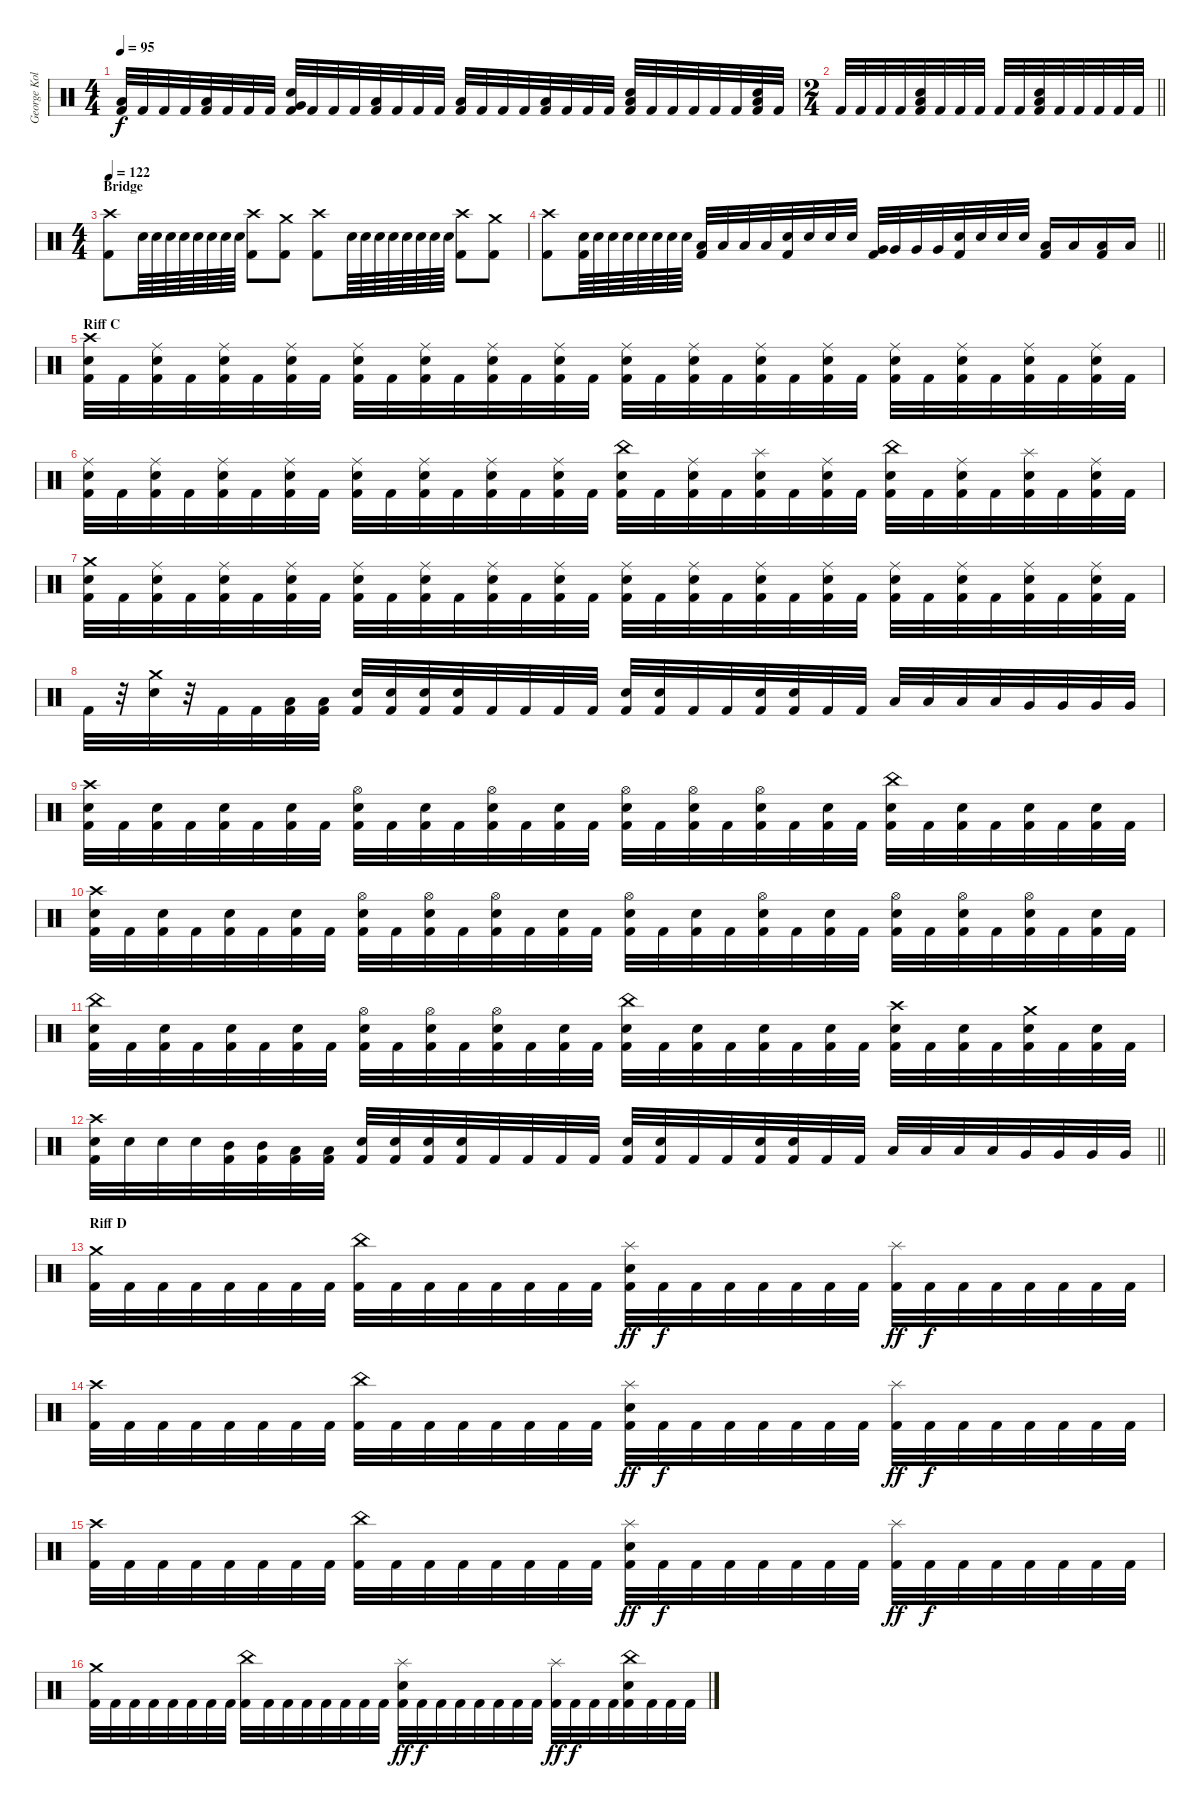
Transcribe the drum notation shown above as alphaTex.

\track ("George Kollias" "George Kol") {instrument percussion}
\staff {score}
\articulation defaults
\ts (4 4)
\tempo 95
\clef neutral
\ks c
("Low Floor Tom (hit)" "Kick (hit) 2").32{dy f} "Kick (hit) 2".32 "Kick (hit) 2".32 "Kick (hit) 2".32 ("Low Floor Tom (hit)" "Kick (hit) 2").32 "Kick (hit) 2".32 "Kick (hit) 2".32 "Kick (hit) 2".32 ("Very Low Tom (hit)" "Snare (hit) 2" "Kick (hit) 2").32 "Kick (hit) 2".32 "Kick (hit) 2".32 "Kick (hit) 2".32 ("Low Floor Tom (hit)" "Kick (hit) 2").32 "Kick (hit) 2".32 "Kick (hit) 2".32 "Kick (hit) 2".32 ("Low Floor Tom (hit)" "Kick (hit) 2").32 "Kick (hit) 2".32 "Kick (hit) 2".32 "Kick (hit) 2".32 ("Low Floor Tom (hit)" "Kick (hit) 2").32 "Kick (hit) 2".32 "Kick (hit) 2".32 "Kick (hit) 2".32 ("Low Floor Tom (hit)" "Snare (hit) 2" "Kick (hit) 2").32 "Kick (hit) 2".32 "Kick (hit) 2".32 "Kick (hit) 2".32 "Kick (hit) 2".32 "Kick (hit) 2".32 ("Low Floor Tom (hit)" "Snare (hit) 2" "Kick (hit) 2").32 "Kick (hit) 2".32 |
\ts (2 4)
\barLineRight lightlight "Kick (hit) 2".32 "Kick (hit) 2".32 "Kick (hit) 2".32 "Kick (hit) 2".32
("Low Floor Tom (hit)" "Snare (hit) 2" "Kick (hit) 2").32 "Kick (hit) 2".32 "Kick (hit) 2".32 "Kick (hit) 2".32 "Kick (hit) 2".32 "Kick (hit) 2".32 ("Low Floor Tom (hit)" "Snare (hit) 2" "Kick (hit) 2").32 "Kick (hit) 2".32 "Kick (hit) 2".32 "Kick (hit) 2".32 "Kick (hit) 2".32 "Kick (hit) 2".32 |
\ts (4 4)
\section ("" "Bridge")
\tempo 122
("Crash high (hit)" "Kick (hit) 2").8 "Snare (hit) 2".64 "Snare (hit) 2".64 "Snare (hit) 2".64 "Snare (hit) 2".64 "Snare (hit) 2".64 "Snare (hit) 2".64 "Snare (hit) 2".64 "Snare (hit) 2".64 ("Crash high (hit)" "Kick (hit) 2").8 ("Crash medium (hit)" "Kick (hit) 2").8 ("Crash high (hit)" "Kick (hit) 2").8 "Snare (hit) 2".64 "Snare (hit) 2".64 "Snare (hit) 2".64 "Snare (hit) 2".64 "Snare (hit) 2".64 "Snare (hit) 2".64 "Snare (hit) 2".64 "Snare (hit) 2".64 ("Crash high (hit)" "Kick (hit) 2").8 ("Crash medium (hit)" "Kick (hit) 2").8 |
\barLineRight lightlight
("Crash high (hit)" "Kick (hit) 2").8 ("Snare (hit) 2" "Kick (hit) 2").64 "Snare (hit) 2".64 "Snare (hit) 2".64 "Snare (hit) 2".64 "Snare (hit) 2".64 "Snare (hit) 2".64 "Snare (hit) 2".64 "Snare (hit) 2".64 ("Low Tom (hit)" "Kick (hit) 2").32 "Low Tom (hit)".32 "Low Tom (hit)".32 "Low Tom (hit)".32 ("Snare (hit) 2" "Kick (hit) 2").32 "Snare (hit) 2".32 "Snare (hit) 2".32 "Snare (hit) 2".32 ("Very Low Tom (hit)" "Kick (hit) 2").32 "Very Low Tom (hit)".32 "Very Low Tom (hit)".32 "Very Low Tom (hit)".32 ("Snare (hit) 2" "Kick (hit) 2").32 "Snare (hit) 2".32 "Snare (hit) 2".32 "Snare (hit) 2".32 ("Low Floor Tom (hit)" "Kick (hit) 2").16 "Low Floor Tom (hit)".16 ("Low Floor Tom (hit)" "Kick (hit) 2").16 "Low Floor Tom (hit)".16 |
\section ("" "Riff C")
("Crash high (hit)" "Snare (hit) 2" "Kick (hit) 2").32 "Kick (hit) 2".32 ("Ride (middle)" "Snare (hit) 2" "Kick (hit) 2").32 "Kick (hit) 2".32 ("Ride (middle)" "Snare (hit) 2" "Kick (hit) 2").32 "Kick (hit) 2".32 ("Ride (middle)" "Snare (hit) 2" "Kick (hit) 2").32 "Kick (hit) 2".32 ("Ride (middle)" "Snare (hit) 2" "Kick (hit) 2").32 "Kick (hit) 2".32 ("Ride (middle)" "Snare (hit) 2" "Kick (hit) 2").32 "Kick (hit) 2".32 ("Ride (middle)" "Snare (hit) 2" "Kick (hit) 2").32 "Kick (hit) 2".32 ("Ride (middle)" "Snare (hit) 2" "Kick (hit) 2").32 "Kick (hit) 2".32 ("Ride (middle)" "Snare (hit) 2" "Kick (hit) 2").32 "Kick (hit) 2".32 ("Ride (middle)" "Snare (hit) 2" "Kick (hit) 2").32 "Kick (hit) 2".32 ("Ride (middle)" "Snare (hit) 2" "Kick (hit) 2").32 "Kick (hit) 2".32 ("Ride (middle)" "Snare (hit) 2" "Kick (hit) 2").32 "Kick (hit) 2".32 ("Ride (middle)" "Snare (hit) 2" "Kick (hit) 2").32 "Kick (hit) 2".32 ("Ride (middle)" "Snare (hit) 2" "Kick (hit) 2").32 "Kick (hit) 2".32 ("Ride (middle)" "Snare (hit) 2" "Kick (hit) 2").32 "Kick (hit) 2".32 ("Ride (middle)" "Snare (hit) 2" "Kick (hit) 2").32 "Kick (hit) 2".32 |
("Ride (middle)" "Snare (hit) 2" "Kick (hit) 2").32 "Kick (hit) 2".32 ("Ride (middle)" "Snare (hit) 2" "Kick (hit) 2").32 "Kick (hit) 2".32 ("Ride (middle)" "Snare (hit) 2" "Kick (hit) 2").32 "Kick (hit) 2".32 ("Ride (middle)" "Snare (hit) 2" "Kick (hit) 2").32 "Kick (hit) 2".32 ("Ride (middle)" "Snare (hit) 2" "Kick (hit) 2").32 "Kick (hit) 2".32 ("Ride (middle)" "Snare (hit) 2" "Kick (hit) 2").32 "Kick (hit) 2".32 ("Ride (middle)" "Snare (hit) 2" "Kick (hit) 2").32 "Kick (hit) 2".32 ("Ride (middle)" "Snare (hit) 2" "Kick (hit) 2").32 "Kick (hit) 2".32 ("China (hit)" "Snare (hit) 2" "Kick (hit) 2").32 "Kick (hit) 2".32 ("Ride (middle)" "Snare (hit) 2" "Kick (hit) 2").32 "Kick (hit) 2".32 ("Splash (hit)" "Snare (hit) 2" "Kick (hit) 2").32 "Kick (hit) 2".32 ("Ride (middle)" "Snare (hit) 2" "Kick (hit) 2").32 "Kick (hit) 2".32 ("China (hit)" "Snare (hit) 2" "Kick (hit) 2").32 "Kick (hit) 2".32 ("Ride (middle)" "Snare (hit) 2" "Kick (hit) 2").32 "Kick (hit) 2".32 ("Splash (hit)" "Snare (hit) 2" "Kick (hit) 2").32 "Kick (hit) 2".32 ("Ride (middle)" "Snare (hit) 2" "Kick (hit) 2").32 "Kick (hit) 2".32 |
("Crash medium (hit)" "Snare (hit) 2" "Kick (hit) 2").32 "Kick (hit) 2".32 ("Ride (middle)" "Snare (hit) 2" "Kick (hit) 2").32 "Kick (hit) 2".32 ("Ride (middle)" "Snare (hit) 2" "Kick (hit) 2").32 "Kick (hit) 2".32 ("Ride (middle)" "Snare (hit) 2" "Kick (hit) 2").32 "Kick (hit) 2".32 ("Ride (middle)" "Snare (hit) 2" "Kick (hit) 2").32 "Kick (hit) 2".32 ("Ride (middle)" "Snare (hit) 2" "Kick (hit) 2").32 "Kick (hit) 2".32 ("Ride (middle)" "Snare (hit) 2" "Kick (hit) 2").32 "Kick (hit) 2".32 ("Ride (middle)" "Snare (hit) 2" "Kick (hit) 2").32 "Kick (hit) 2".32 ("Ride (middle)" "Snare (hit) 2" "Kick (hit) 2").32 "Kick (hit) 2".32 ("Ride (middle)" "Snare (hit) 2" "Kick (hit) 2").32 "Kick (hit) 2".32 ("Ride (middle)" "Snare (hit) 2" "Kick (hit) 2").32 "Kick (hit) 2".32 ("Ride (middle)" "Snare (hit) 2" "Kick (hit) 2").32 "Kick (hit) 2".32 ("Ride (middle)" "Snare (hit) 2" "Kick (hit) 2").32 "Kick (hit) 2".32 ("Ride (middle)" "Snare (hit) 2" "Kick (hit) 2").32 "Kick (hit) 2".32 ("Ride (middle)" "Snare (hit) 2" "Kick (hit) 2").32 "Kick (hit) 2".32 ("Ride (middle)" "Snare (hit) 2" "Kick (hit) 2").32 "Kick (hit) 2".32 |
"Kick (hit) 2".32 r.32 ("Crash medium (hit)" "Snare (hit) 2").32 r.32 "Kick (hit) 2".32 "Kick (hit) 2".32 ("Low Tom (hit)" "Kick (hit) 2").32 ("Low Tom (hit)" "Kick (hit) 2").32 ("Snare (hit) 2" "Kick (hit) 2").32 ("Snare (hit) 2" "Kick (hit) 2").32 ("Snare (hit) 2" "Kick (hit) 2").32 ("Snare (hit) 2" "Kick (hit) 2").32 "Kick (hit) 2".32 "Kick (hit) 2".32 "Kick (hit) 2".32 "Kick (hit) 2".32 ("Snare (hit) 2" "Kick (hit) 2").32 ("Snare (hit) 2" "Kick (hit) 2").32 "Kick (hit) 2".32 "Kick (hit) 2".32 ("Snare (hit) 2" "Kick (hit) 2").32 ("Snare (hit) 2" "Kick (hit) 2").32 "Kick (hit) 2".32 "Kick (hit) 2".32 "Low Tom (hit)".32 "Low Tom (hit)".32 "Low Tom (hit)".32 "Low Tom (hit)".32 "Very Low Tom (hit)".32 "Very Low Tom (hit)".32 "Very Low Tom (hit)".32 "Very Low Tom (hit)".32 |
("Crash high (hit)" "Snare (hit) 2" "Kick (hit) 2").32 "Kick (hit) 2".32 ("Snare (hit) 2" "Kick (hit) 2").32 "Kick (hit) 2".32 ("Snare (hit) 2" "Kick (hit) 2").32 "Kick (hit) 2".32 ("Snare (hit) 2" "Kick (hit) 2").32 "Kick (hit) 2".32 ("Hi-Hat (open)" "Snare (hit) 2" "Kick (hit) 2").32 "Kick (hit) 2".32 ("Snare (hit) 2" "Kick (hit) 2").32 "Kick (hit) 2".32 ("Hi-Hat (open)" "Snare (hit) 2" "Kick (hit) 2").32 "Kick (hit) 2".32 ("Snare (hit) 2" "Kick (hit) 2").32 "Kick (hit) 2".32 ("Hi-Hat (open)" "Snare (hit) 2" "Kick (hit) 2").32 "Kick (hit) 2".32 ("Hi-Hat (open)" "Snare (hit) 2" "Kick (hit) 2").32 "Kick (hit) 2".32 ("Hi-Hat (open)" "Snare (hit) 2" "Kick (hit) 2").32 "Kick (hit) 2".32 ("Snare (hit) 2" "Kick (hit) 2").32 "Kick (hit) 2".32 ("China (hit)" "Snare (hit) 2" "Kick (hit) 2").32 "Kick (hit) 2".32 ("Snare (hit) 2" "Kick (hit) 2").32 "Kick (hit) 2".32 ("Snare (hit) 2" "Kick (hit) 2").32 "Kick (hit) 2".32 ("Snare (hit) 2" "Kick (hit) 2").32 "Kick (hit) 2".32 |
("Crash high (hit)" "Snare (hit) 2" "Kick (hit) 2").32 "Kick (hit) 2".32 ("Snare (hit) 2" "Kick (hit) 2").32 "Kick (hit) 2".32 ("Snare (hit) 2" "Kick (hit) 2").32 "Kick (hit) 2".32 ("Snare (hit) 2" "Kick (hit) 2").32 "Kick (hit) 2".32 ("Hi-Hat (open)" "Snare (hit) 2" "Kick (hit) 2").32 "Kick (hit) 2".32 ("Hi-Hat (open)" "Snare (hit) 2" "Kick (hit) 2").32 "Kick (hit) 2".32 ("Hi-Hat (open)" "Snare (hit) 2" "Kick (hit) 2").32 "Kick (hit) 2".32 ("Snare (hit) 2" "Kick (hit) 2").32 "Kick (hit) 2".32 ("Hi-Hat (open)" "Snare (hit) 2" "Kick (hit) 2").32 "Kick (hit) 2".32 ("Snare (hit) 2" "Kick (hit) 2").32 "Kick (hit) 2".32 ("Hi-Hat (open)" "Snare (hit) 2" "Kick (hit) 2").32 "Kick (hit) 2".32 ("Snare (hit) 2" "Kick (hit) 2").32 "Kick (hit) 2".32 ("Hi-Hat (open)" "Snare (hit) 2" "Kick (hit) 2").32 "Kick (hit) 2".32 ("Hi-Hat (open)" "Snare (hit) 2" "Kick (hit) 2").32 "Kick (hit) 2".32 ("Hi-Hat (open)" "Snare (hit) 2" "Kick (hit) 2").32 "Kick (hit) 2".32 ("Snare (hit) 2" "Kick (hit) 2").32 "Kick (hit) 2".32 |
("China (hit)" "Snare (hit) 2" "Kick (hit) 2").32 "Kick (hit) 2".32 ("Snare (hit) 2" "Kick (hit) 2").32 "Kick (hit) 2".32 ("Snare (hit) 2" "Kick (hit) 2").32 "Kick (hit) 2".32 ("Snare (hit) 2" "Kick (hit) 2").32 "Kick (hit) 2".32 ("Hi-Hat (open)" "Snare (hit) 2" "Kick (hit) 2").32 "Kick (hit) 2".32 ("Hi-Hat (open)" "Snare (hit) 2" "Kick (hit) 2").32 "Kick (hit) 2".32 ("Hi-Hat (open)" "Snare (hit) 2" "Kick (hit) 2").32 "Kick (hit) 2".32 ("Snare (hit) 2" "Kick (hit) 2").32 "Kick (hit) 2".32 ("China (hit)" "Snare (hit) 2" "Kick (hit) 2").32 "Kick (hit) 2".32 ("Snare (hit) 2" "Kick (hit) 2").32 "Kick (hit) 2".32 ("Snare (hit) 2" "Kick (hit) 2").32 "Kick (hit) 2".32 ("Snare (hit) 2" "Kick (hit) 2").32 "Kick (hit) 2".32 ("Crash high (hit)" "Snare (hit) 2" "Kick (hit) 2").32 "Kick (hit) 2".32 ("Snare (hit) 2" "Kick (hit) 2").32 "Kick (hit) 2".32 ("Crash medium (hit)" "Snare (hit) 2" "Kick (hit) 2").32 "Kick (hit) 2".32 ("Snare (hit) 2" "Kick (hit) 2").32 "Kick (hit) 2".32 |
\barLineRight lightlight
("Crash high (hit)" "Snare (hit) 2" "Kick (hit) 2").32 "Snare (hit) 2".32 "Snare (hit) 2".32 "Snare (hit) 2".32 ("Mid Tom (hit)" "Kick (hit) 2").32 ("Mid Tom (hit)" "Kick (hit) 2").32 ("Low Tom (hit)" "Kick (hit) 2").32 ("Low Tom (hit)" "Kick (hit) 2").32 ("Snare (hit) 2" "Kick (hit) 2").32 ("Snare (hit) 2" "Kick (hit) 2").32 ("Snare (hit) 2" "Kick (hit) 2").32 ("Snare (hit) 2" "Kick (hit) 2").32 "Kick (hit) 2".32 "Kick (hit) 2".32 "Kick (hit) 2".32 "Kick (hit) 2".32 ("Snare (hit) 2" "Kick (hit) 2").32 ("Snare (hit) 2" "Kick (hit) 2").32 "Kick (hit) 2".32 "Kick (hit) 2".32 ("Snare (hit) 2" "Kick (hit) 2").32 ("Snare (hit) 2" "Kick (hit) 2").32 "Kick (hit) 2".32 "Kick (hit) 2".32 "Low Tom (hit)".32 "Low Tom (hit)".32 "Low Tom (hit)".32 "Low Tom (hit)".32 "Very Low Tom (hit)".32 "Very Low Tom (hit)".32 "Very Low Tom (hit)".32 "Very Low Tom (hit)".32 |
\section ("" "Riff D")
("Crash medium (hit)" "Kick (hit) 2").32 "Kick (hit) 2".32 "Kick (hit) 2".32 "Kick (hit) 2".32 "Kick (hit) 2".32 "Kick (hit) 2".32 "Kick (hit) 2".32 "Kick (hit) 2".32 ("China (hit)" "Kick (hit) 2").32 "Kick (hit) 2".32 "Kick (hit) 2".32 "Kick (hit) 2".32 "Kick (hit) 2".32 "Kick (hit) 2".32 "Kick (hit) 2".32 "Kick (hit) 2".32 ("Splash (hit)" "Snare (hit) 2" "Kick (hit) 2").32{dy ff} "Kick (hit) 2".32{dy f} "Kick (hit) 2".32 "Kick (hit) 2".32 "Kick (hit) 2".32 "Kick (hit) 2".32 "Kick (hit) 2".32 "Kick (hit) 2".32 ("Splash (hit)" "Kick (hit) 2").32{dy ff} "Kick (hit) 2".32{dy f} "Kick (hit) 2".32 "Kick (hit) 2".32 "Kick (hit) 2".32 "Kick (hit) 2".32 "Kick (hit) 2".32 "Kick (hit) 2".32 |
("Crash high (hit)" "Kick (hit) 2").32 "Kick (hit) 2".32 "Kick (hit) 2".32 "Kick (hit) 2".32 "Kick (hit) 2".32 "Kick (hit) 2".32 "Kick (hit) 2".32 "Kick (hit) 2".32 ("China (hit)" "Kick (hit) 2").32 "Kick (hit) 2".32 "Kick (hit) 2".32 "Kick (hit) 2".32 "Kick (hit) 2".32 "Kick (hit) 2".32 "Kick (hit) 2".32 "Kick (hit) 2".32 ("Splash (hit)" "Snare (hit) 2" "Kick (hit) 2").32{dy ff} "Kick (hit) 2".32{dy f} "Kick (hit) 2".32 "Kick (hit) 2".32 "Kick (hit) 2".32 "Kick (hit) 2".32 "Kick (hit) 2".32 "Kick (hit) 2".32 ("Splash (hit)" "Kick (hit) 2").32{dy ff} "Kick (hit) 2".32{dy f} "Kick (hit) 2".32 "Kick (hit) 2".32 "Kick (hit) 2".32 "Kick (hit) 2".32 "Kick (hit) 2".32 "Kick (hit) 2".32 |
("Crash high (hit)" "Kick (hit) 2").32 "Kick (hit) 2".32 "Kick (hit) 2".32 "Kick (hit) 2".32 "Kick (hit) 2".32 "Kick (hit) 2".32 "Kick (hit) 2".32 "Kick (hit) 2".32 ("China (hit)" "Kick (hit) 2").32 "Kick (hit) 2".32 "Kick (hit) 2".32 "Kick (hit) 2".32 "Kick (hit) 2".32 "Kick (hit) 2".32 "Kick (hit) 2".32 "Kick (hit) 2".32 ("Splash (hit)" "Snare (hit) 2" "Kick (hit) 2").32{dy ff} "Kick (hit) 2".32{dy f} "Kick (hit) 2".32 "Kick (hit) 2".32 "Kick (hit) 2".32 "Kick (hit) 2".32 "Kick (hit) 2".32 "Kick (hit) 2".32 ("Splash (hit)" "Kick (hit) 2").32{dy ff} "Kick (hit) 2".32{dy f} "Kick (hit) 2".32 "Kick (hit) 2".32 "Kick (hit) 2".32 "Kick (hit) 2".32 "Kick (hit) 2".32 "Kick (hit) 2".32 |
("Crash medium (hit)" "Kick (hit) 2").32 "Kick (hit) 2".32 "Kick (hit) 2".32 "Kick (hit) 2".32 "Kick (hit) 2".32 "Kick (hit) 2".32 "Kick (hit) 2".32 "Kick (hit) 2".32 ("China (hit)" "Kick (hit) 2").32 "Kick (hit) 2".32 "Kick (hit) 2".32 "Kick (hit) 2".32 "Kick (hit) 2".32 "Kick (hit) 2".32 "Kick (hit) 2".32 "Kick (hit) 2".32 ("Splash (hit)" "Snare (hit) 2" "Kick (hit) 2").32{dy ff} "Kick (hit) 2".32{dy f} "Kick (hit) 2".32 "Kick (hit) 2".32 "Kick (hit) 2".32 "Kick (hit) 2".32 "Kick (hit) 2".32 "Kick (hit) 2".32 ("Splash (hit)" "Kick (hit) 2").32{dy ff} "Kick (hit) 2".32{dy f} "Kick (hit) 2".32 "Kick (hit) 2".32 ("China (hit)" "Snare (hit) 2" "Kick (hit) 2").32 "Kick (hit) 2".32 "Kick (hit) 2".32 "Kick (hit) 2".32
